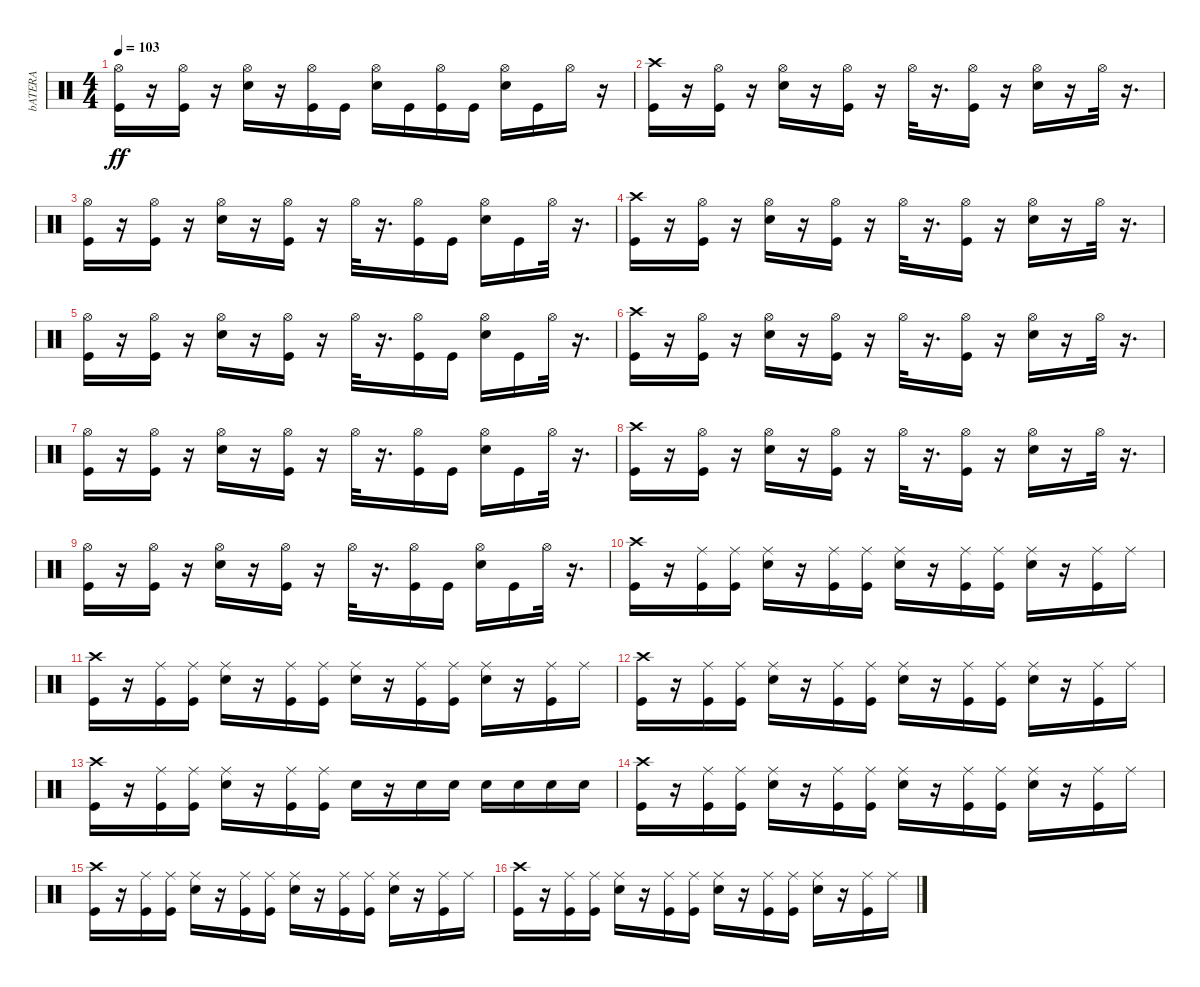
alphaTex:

\track ("bATERA" "bATERA") {instrument percussion}
\staff {score}
\articulation defaults
\ts (4 4)
\tempo 103
\clef neutral
\ks c
("Kick (hit)" "Hi-Hat (open)").16{dy ff} r.16 ("Kick (hit)" "Hi-Hat (open)").16 r.16 ("Snare (hit) 2" "Hi-Hat (open)").16 r.16 ("Kick (hit)" "Hi-Hat (open)").16 "Kick (hit)".16 ("Hi-Hat (open)" "Snare (hit) 2").16 "Kick (hit)".16 ("Kick (hit)" "Hi-Hat (open)").16 "Kick (hit)".16 ("Hi-Hat (open)" "Snare (hit) 2").16 "Kick (hit)".16 "Hi-Hat (open)".16 r.16 |
("Crash high (hit)" "Kick (hit)").16 r.16 ("Kick (hit)" "Hi-Hat (open)").16 r.16 ("Snare (hit) 2" "Hi-Hat (open)").16 r.16 ("Kick (hit)" "Hi-Hat (open)").16 r.16 "Hi-Hat (open)".32 r.16{d} ("Kick (hit)" "Hi-Hat (open)").16 r.16 ("Snare (hit) 2" "Hi-Hat (open)").16 r.16 "Hi-Hat (open)".32 r.16{d} |
("Kick (hit)" "Hi-Hat (open)").16 r.16 ("Kick (hit)" "Hi-Hat (open)").16 r.16 ("Snare (hit) 2" "Hi-Hat (open)").16 r.16 ("Kick (hit)" "Hi-Hat (open)").16 r.16 "Hi-Hat (open)".32 r.16{d} ("Kick (hit)" "Hi-Hat (open)").16 "Kick (hit)".16 ("Snare (hit) 2" "Hi-Hat (open)").16 "Kick (hit)".16 "Hi-Hat (open)".32 r.16{d} |
("Kick (hit)" "Crash high (hit)").16 r.16 ("Kick (hit)" "Hi-Hat (open)").16 r.16 ("Snare (hit) 2" "Hi-Hat (open)").16 r.16 ("Kick (hit)" "Hi-Hat (open)").16 r.16 "Hi-Hat (open)".32 r.16{d} ("Kick (hit)" "Hi-Hat (open)").16 r.16 ("Snare (hit) 2" "Hi-Hat (open)").16 r.16 "Hi-Hat (open)".32 r.16{d} |
("Kick (hit)" "Hi-Hat (open)").16 r.16 ("Kick (hit)" "Hi-Hat (open)").16 r.16 ("Snare (hit) 2" "Hi-Hat (open)").16 r.16 ("Kick (hit)" "Hi-Hat (open)").16 r.16 "Hi-Hat (open)".32 r.16{d} ("Kick (hit)" "Hi-Hat (open)").16 "Kick (hit)".16 ("Snare (hit) 2" "Hi-Hat (open)").16 "Kick (hit)".16 "Hi-Hat (open)".32 r.16{d} |
("Crash high (hit)" "Kick (hit)").16 r.16 ("Kick (hit)" "Hi-Hat (open)").16 r.16 ("Snare (hit) 2" "Hi-Hat (open)").16 r.16 ("Kick (hit)" "Hi-Hat (open)").16 r.16 "Hi-Hat (open)".32 r.16{d} ("Kick (hit)" "Hi-Hat (open)").16 r.16 ("Snare (hit) 2" "Hi-Hat (open)").16 r.16 "Hi-Hat (open)".32 r.16{d} |
("Kick (hit)" "Hi-Hat (open)").16 r.16 ("Kick (hit)" "Hi-Hat (open)").16 r.16 ("Snare (hit) 2" "Hi-Hat (open)").16 r.16 ("Kick (hit)" "Hi-Hat (open)").16 r.16 "Hi-Hat (open)".32 r.16{d} ("Kick (hit)" "Hi-Hat (open)").16 "Kick (hit)".16 ("Snare (hit) 2" "Hi-Hat (open)").16 "Kick (hit)".16 "Hi-Hat (open)".32 r.16{d} |
("Kick (hit)" "Crash high (hit)").16 r.16 ("Kick (hit)" "Hi-Hat (open)").16 r.16 ("Snare (hit) 2" "Hi-Hat (open)").16 r.16 ("Kick (hit)" "Hi-Hat (open)").16 r.16 "Hi-Hat (open)".32 r.16{d} ("Kick (hit)" "Hi-Hat (open)").16 r.16 ("Snare (hit) 2" "Hi-Hat (open)").16 r.16 "Hi-Hat (open)".32 r.16{d} |
("Kick (hit)" "Hi-Hat (open)").16 r.16 ("Kick (hit)" "Hi-Hat (open)").16 r.16 ("Snare (hit) 2" "Hi-Hat (open)").16 r.16 ("Kick (hit)" "Hi-Hat (open)").16 r.16 "Hi-Hat (open)".32 r.16{d} ("Kick (hit)" "Hi-Hat (open)").16 "Kick (hit)".16 ("Snare (hit) 2" "Hi-Hat (open)").16 "Kick (hit)".16 "Hi-Hat (open)".32 r.16{d} |
("Kick (hit)" "Crash high (hit)").16 r.16 ("Kick (hit)" "Ride (middle)").16 ("Kick (hit)" "Ride (middle)").16 ("Ride (middle)" "Snare (hit) 2").16 r.16 ("Kick (hit)" "Ride (middle)").16 ("Kick (hit)" "Ride (middle)").16 ("Ride (middle)" "Snare (hit) 2").16 r.16 ("Kick (hit)" "Ride (middle)").16 ("Kick (hit)" "Ride (middle)").16 ("Ride (middle)" "Snare (hit) 2").16 r.16 ("Kick (hit)" "Ride (middle)").16 "Ride (middle)".16 |
("Crash high (hit)" "Kick (hit)").16 r.16 ("Kick (hit)" "Ride (middle)").16 ("Kick (hit)" "Ride (middle)").16 ("Ride (middle)" "Snare (hit) 2").16 r.16 ("Kick (hit)" "Ride (middle)").16 ("Kick (hit)" "Ride (middle)").16 ("Ride (middle)" "Snare (hit) 2").16 r.16 ("Kick (hit)" "Ride (middle)").16 ("Kick (hit)" "Ride (middle)").16 ("Ride (middle)" "Snare (hit) 2").16 r.16 ("Kick (hit)" "Ride (middle)").16 "Ride (middle)".16 |
("Crash high (hit)" "Kick (hit)").16 r.16 ("Kick (hit)" "Ride (middle)").16 ("Kick (hit)" "Ride (middle)").16 ("Ride (middle)" "Snare (hit) 2").16 r.16 ("Kick (hit)" "Ride (middle)").16 ("Kick (hit)" "Ride (middle)").16 ("Ride (middle)" "Snare (hit) 2").16 r.16 ("Kick (hit)" "Ride (middle)").16 ("Kick (hit)" "Ride (middle)").16 ("Ride (middle)" "Snare (hit) 2").16 r.16 ("Kick (hit)" "Ride (middle)").16 "Ride (middle)".16 |
("Crash high (hit)" "Kick (hit)").16 r.16 ("Kick (hit)" "Ride (middle)").16 ("Kick (hit)" "Ride (middle)").16 ("Ride (middle)" "Snare (hit) 2").16 r.16 ("Kick (hit)" "Ride (middle)").16 ("Kick (hit)" "Ride (middle)").16 "Snare (hit) 2".16 r.16 "Snare (hit) 2".16 "Snare (hit) 2".16 "Snare (hit) 2".16 "Snare (hit) 2".16 "Snare (hit) 2".16 "Snare (hit) 2".16 |
("Kick (hit)" "Crash high (hit)").16 r.16 ("Kick (hit)" "Ride (middle)").16 ("Kick (hit)" "Ride (middle)").16 ("Ride (middle)" "Snare (hit) 2").16 r.16 ("Kick (hit)" "Ride (middle)").16 ("Kick (hit)" "Ride (middle)").16 ("Ride (middle)" "Snare (hit) 2").16 r.16 ("Kick (hit)" "Ride (middle)").16 ("Kick (hit)" "Ride (middle)").16 ("Ride (middle)" "Snare (hit) 2").16 r.16 ("Kick (hit)" "Ride (middle)").16 "Ride (middle)".16 |
("Kick (hit)" "Crash high (hit)").16 r.16 ("Kick (hit)" "Ride (middle)").16 ("Kick (hit)" "Ride (middle)").16 ("Ride (middle)" "Snare (hit) 2").16 r.16 ("Kick (hit)" "Ride (middle)").16 ("Kick (hit)" "Ride (middle)").16 ("Ride (middle)" "Snare (hit) 2").16 r.16 ("Kick (hit)" "Ride (middle)").16 ("Kick (hit)" "Ride (middle)").16 ("Ride (middle)" "Snare (hit) 2").16 r.16 ("Kick (hit)" "Ride (middle)").16 "Ride (middle)".16 |
("Kick (hit)" "Crash high (hit)").16 r.16 ("Kick (hit)" "Ride (middle)").16 ("Kick (hit)" "Ride (middle)").16 ("Ride (middle)" "Snare (hit) 2").16 r.16 ("Kick (hit)" "Ride (middle)").16 ("Kick (hit)" "Ride (middle)").16 ("Ride (middle)" "Snare (hit) 2").16 r.16 ("Kick (hit)" "Ride (middle)").16 ("Kick (hit)" "Ride (middle)").16 ("Ride (middle)" "Snare (hit) 2").16 r.16 ("Kick (hit)" "Ride (middle)").16 "Ride (middle)".16
